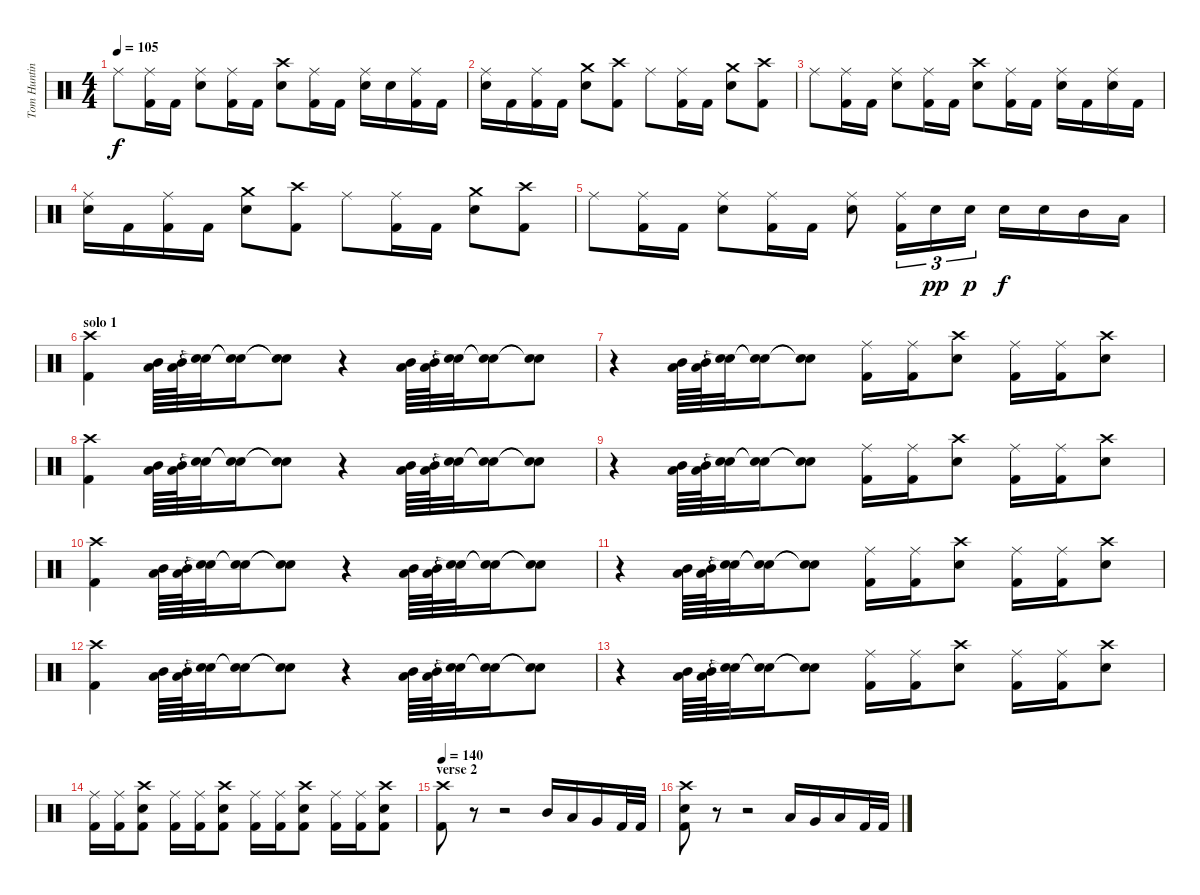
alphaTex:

\track ("Tom Hunting" "Tom Huntin") {instrument percussion}
\staff {score}
\articulation defaults
\ts (4 4)
\tempo 105
\clef neutral
\ks c "Ride (middle)".8{dy f}
("Kick (hit) 2" "Ride (middle)").16 "Kick (hit) 2".16 ("Ride (middle)" "Snare (hit) 2").8 ("Kick (hit) 2" "Ride (middle)").16 "Kick (hit) 2".16 ("Crash high (hit)" "Snare (hit) 2").8 ("Kick (hit) 2" "Ride (middle)").16 "Kick (hit) 2".16 ("Ride (middle)" "Snare (hit) 2").16 "Snare (hit) 2".16 ("Kick (hit) 2" "Ride (middle)").16 "Kick (hit) 2".16 |
("Ride (middle)" "Snare (hit) 2").16 "Kick (hit) 2".16 ("Kick (hit) 2" "Ride (middle)").16 "Kick (hit) 2".16 ("Crash medium (hit)" "Snare (hit) 2").8 ("Kick (hit) 2" "Crash high (hit)").8 "Ride (middle)".8 ("Kick (hit) 2" "Ride (middle)").16 "Kick (hit) 2".16 ("Crash medium (hit)" "Snare (hit) 2").8 ("Kick (hit) 2" "Crash high (hit)").8 |
"Ride (middle)".8 ("Kick (hit) 2" "Ride (middle)").16 "Kick (hit) 2".16 ("Ride (middle)" "Snare (hit) 2").8 ("Kick (hit) 2" "Ride (middle)").16 "Kick (hit) 2".16 ("Crash high (hit)" "Snare (hit) 2").8 ("Kick (hit) 2" "Ride (middle)").16 "Kick (hit) 2".16 ("Ride (middle)" "Snare (hit) 2").16 "Kick (hit) 2".16 ("Ride (middle)" "Snare (hit) 2").16 "Kick (hit) 2".16 |
("Ride (middle)" "Snare (hit) 2").16 "Kick (hit) 2".16 ("Kick (hit) 2" "Ride (middle)").16 "Kick (hit) 2".16 ("Crash medium (hit)" "Snare (hit) 2").8 ("Kick (hit) 2" "Crash high (hit)").8 "Ride (middle)".8 ("Kick (hit) 2" "Ride (middle)").16 "Kick (hit) 2".16 ("Crash medium (hit)" "Snare (hit) 2").8 ("Kick (hit) 2" "Crash high (hit)").8 |
"Ride (middle)".8 ("Kick (hit) 2" "Ride (middle)").16 "Kick (hit) 2".16 ("Ride (middle)" "Snare (hit) 2").8 ("Kick (hit) 2" "Ride (middle)").16 "Kick (hit) 2".16 ("Ride (middle)" "Snare (hit) 2").8 ("Kick (hit) 2" "Ride (middle)").16{tu (3 2)} "Snare (hit) 2".16{tu (3 2) dy pp} "Snare (hit) 2".16{tu (3 2) dy p} "Snare (hit) 2".16{dy f} "Snare (hit) 2".16 "Mid Tom (hit)".16 "Low Tom (hit)".16 |
\section ("" "solo 1")
("Kick (hit) 2" "Crash high (hit)").4 ("Low Tom (hit)" "Mid Tom (hit)").64 ("Low Tom (hit)" "Mid Tom (hit)").64 ("Snare (hit)"{t} "Snare (hit)"{t}).32 ("Snare (hit)"{t} "Snare (hit)"{t}).16 ("Snare (hit)"{t} "Snare (hit)"{t}).8 r.4 ("Low Tom (hit)" "Mid Tom (hit)").64 ("Low Tom (hit)" "Mid Tom (hit)").64 ("Snare (hit)"{t} "Snare (hit)"{t}).32 ("Snare (hit)"{t} "Snare (hit)"{t}).16 ("Snare (hit)"{t} "Snare (hit)"{t}).8 |
r.4 ("Low Tom (hit)" "Mid Tom (hit)").64 ("Low Tom (hit)" "Mid Tom (hit)").64 ("Snare (hit)"{t} "Snare (hit)"{t}).32 ("Snare (hit)"{t} "Snare (hit)"{t}).16 ("Snare (hit)"{t} "Snare (hit)"{t}).8 ("Kick (hit) 2" "Ride (middle)").16 ("Kick (hit) 2" "Ride (middle)").16 ("Crash high (hit)" "Snare (hit) 2").8 ("Kick (hit) 2" "Ride (middle)").16 ("Kick (hit) 2" "Ride (middle)").16 ("Crash high (hit)" "Snare (hit) 2").8 |
("Kick (hit) 2" "Crash high (hit)").4 ("Low Tom (hit)" "Mid Tom (hit)").64 ("Low Tom (hit)" "Mid Tom (hit)").64 ("Snare (hit)"{t} "Snare (hit)"{t}).32 ("Snare (hit)"{t} "Snare (hit)"{t}).16 ("Snare (hit)"{t} "Snare (hit)"{t}).8 r.4 ("Low Tom (hit)" "Mid Tom (hit)").64 ("Low Tom (hit)" "Mid Tom (hit)").64 ("Snare (hit)"{t} "Snare (hit)"{t}).32 ("Snare (hit)"{t} "Snare (hit)"{t}).16 ("Snare (hit)"{t} "Snare (hit)"{t}).8 |
r.4 ("Low Tom (hit)" "Mid Tom (hit)").64 ("Low Tom (hit)" "Mid Tom (hit)").64 ("Snare (hit)"{t} "Snare (hit)"{t}).32 ("Snare (hit)"{t} "Snare (hit)"{t}).16 ("Snare (hit)"{t} "Snare (hit)"{t}).8 ("Kick (hit) 2" "Ride (middle)").16 ("Kick (hit) 2" "Ride (middle)").16 ("Crash high (hit)" "Snare (hit) 2").8 ("Kick (hit) 2" "Ride (middle)").16 ("Kick (hit) 2" "Ride (middle)").16 ("Crash high (hit)" "Snare (hit) 2").8 |
("Kick (hit) 2" "Crash high (hit)").4 ("Low Tom (hit)" "Mid Tom (hit)").64 ("Low Tom (hit)" "Mid Tom (hit)").64 ("Snare (hit)"{t} "Snare (hit)"{t}).32 ("Snare (hit)"{t} "Snare (hit)"{t}).16 ("Snare (hit)"{t} "Snare (hit)"{t}).8 r.4 ("Low Tom (hit)" "Mid Tom (hit)").64 ("Low Tom (hit)" "Mid Tom (hit)").64 ("Snare (hit)"{t} "Snare (hit)"{t}).32 ("Snare (hit)"{t} "Snare (hit)"{t}).16 ("Snare (hit)"{t} "Snare (hit)"{t}).8 |
r.4 ("Low Tom (hit)" "Mid Tom (hit)").64 ("Low Tom (hit)" "Mid Tom (hit)").64 ("Snare (hit)"{t} "Snare (hit)"{t}).32 ("Snare (hit)"{t} "Snare (hit)"{t}).16 ("Snare (hit)"{t} "Snare (hit)"{t}).8 ("Kick (hit) 2" "Ride (middle)").16 ("Kick (hit) 2" "Ride (middle)").16 ("Crash high (hit)" "Snare (hit) 2").8 ("Kick (hit) 2" "Ride (middle)").16 ("Kick (hit) 2" "Ride (middle)").16 ("Crash high (hit)" "Snare (hit) 2").8 |
("Kick (hit) 2" "Crash high (hit)").4 ("Low Tom (hit)" "Mid Tom (hit)").64 ("Low Tom (hit)" "Mid Tom (hit)").64 ("Snare (hit)"{t} "Snare (hit)"{t}).32 ("Snare (hit)"{t} "Snare (hit)"{t}).16 ("Snare (hit)"{t} "Snare (hit)"{t}).8 r.4 ("Low Tom (hit)" "Mid Tom (hit)").64 ("Low Tom (hit)" "Mid Tom (hit)").64 ("Snare (hit)"{t} "Snare (hit)"{t}).32 ("Snare (hit)"{t} "Snare (hit)"{t}).16 ("Snare (hit)"{t} "Snare (hit)"{t}).8 |
r.4 ("Low Tom (hit)" "Mid Tom (hit)").64 ("Low Tom (hit)" "Mid Tom (hit)").64 ("Snare (hit)"{t} "Snare (hit)"{t}).32 ("Snare (hit)"{t} "Snare (hit)"{t}).16 ("Snare (hit)"{t} "Snare (hit)"{t}).8 ("Kick (hit) 2" "Ride (middle)").16 ("Kick (hit) 2" "Ride (middle)").16 ("Crash high (hit)" "Snare (hit) 2").8 ("Kick (hit) 2" "Ride (middle)").16 ("Kick (hit) 2" "Ride (middle)").16 ("Crash high (hit)" "Snare (hit) 2").8 |
("Kick (hit) 2" "Ride (middle)").16 ("Kick (hit) 2" "Ride (middle)").16 ("Kick (hit) 2" "Crash high (hit)" "Snare (hit) 2").8 ("Kick (hit) 2" "Ride (middle)").16 ("Kick (hit) 2" "Ride (middle)").16 ("Kick (hit) 2" "Crash high (hit)" "Snare (hit) 2").8 ("Kick (hit) 2" "Ride (middle)").16 ("Kick (hit) 2" "Ride (middle)").16 ("Kick (hit) 2" "Crash high (hit)" "Snare (hit) 2").8 ("Kick (hit) 2" "Ride (middle)").16 ("Kick (hit) 2" "Ride (middle)").16 ("Kick (hit) 2" "Crash high (hit)" "Snare (hit) 2").8 |
\section ("" "verse 2")
\tempo 140
("Kick (hit) 2" "Crash high (hit)").8 r.8 r.2 "Mid Tom (hit)".16 "Low Tom (hit)".16 "Very Low Tom (hit)".16 "Kick (hit) 2".32 "Kick (hit) 2".32 |
("Kick (hit) 2" "Crash high (hit)" "Snare (hit) 2").8 r.8 r.2 "Low Tom (hit)".16 "Very Low Tom (hit)".16 "Low Floor Tom (hit)".16 "Kick (hit) 2".32 "Kick (hit) 2".32
